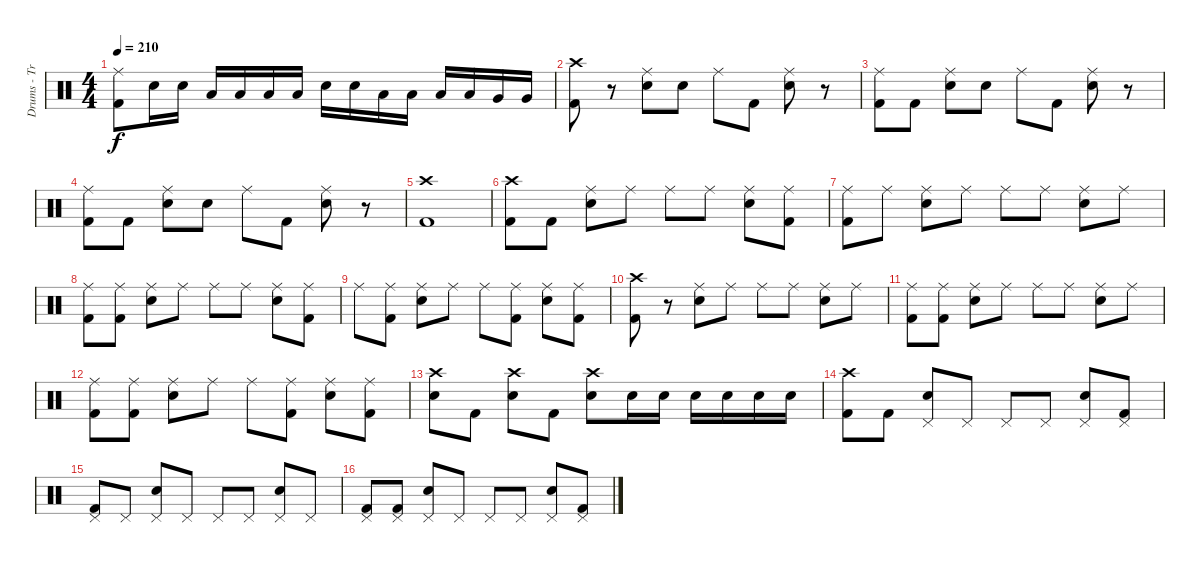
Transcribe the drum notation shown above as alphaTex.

\track ("Drums - Travis Barker" "Drums - Tr") {instrument percussion}
\staff {score}
\articulation defaults
\ts (4 4)
\tempo 210
\clef neutral
\ks c
("Ride (middle)" "Kick (hit) 2").8{dy f} "Electric Snare (hit)".16 "Electric Snare (hit)".16 "Low Tom (hit)".16 "Low Tom (hit)".16 "Low Tom (hit)".16 "Low Tom (hit)".16 "Electric Snare (hit)".16 "Electric Snare (hit)".16 "Low Tom (hit)".16 "Low Tom (hit)".16 "Low Tom (hit)".16 "Low Tom (hit)".16 "Very Low Tom (hit)".16 "Very Low Tom (hit)".16 |
("Crash high (hit)" "Kick (hit) 2").8 r.8 ("Ride (middle)" "Electric Snare (hit)").8 "Electric Snare (hit)".8 "Ride (middle)".8 "Kick (hit) 2".8 ("Ride (middle)" "Electric Snare (hit)").8 r.8 |
("Ride (middle)" "Kick (hit) 2").8 "Kick (hit) 2".8 ("Ride (middle)" "Electric Snare (hit)").8 "Electric Snare (hit)".8 "Ride (middle)".8 "Kick (hit) 2".8 ("Ride (middle)" "Electric Snare (hit)").8 r.8 |
("Ride (middle)" "Kick (hit) 2").8 "Kick (hit) 2".8 ("Ride (middle)" "Electric Snare (hit)").8 "Electric Snare (hit)".8 "Ride (middle)".8 "Kick (hit) 2".8 ("Ride (middle)" "Electric Snare (hit)").8 r.8 |
("Crash high (hit)" "Kick (hit) 2").1 |
("Crash high (hit)" "Kick (hit) 2").8 "Kick (hit) 2".8 ("Ride (middle)" "Electric Snare (hit)").8 "Ride (middle)".8 "Ride (middle)".8 "Ride (middle)".8 ("Ride (middle)" "Electric Snare (hit)").8 ("Ride (middle)" "Kick (hit) 2").8 |
("Ride (middle)" "Kick (hit) 2").8 "Ride (middle)".8 ("Ride (middle)" "Electric Snare (hit)").8 "Ride (middle)".8 "Ride (middle)".8 "Ride (middle)".8 ("Ride (middle)" "Electric Snare (hit)").8 "Ride (middle)".8 |
("Ride (middle)" "Kick (hit) 2").8 ("Ride (middle)" "Kick (hit) 2").8 ("Ride (middle)" "Electric Snare (hit)").8 "Ride (middle)".8 "Ride (middle)".8 "Ride (middle)".8 ("Ride (middle)" "Electric Snare (hit)").8 ("Ride (middle)" "Kick (hit) 2").8 |
"Ride (middle)".8 ("Ride (middle)" "Kick (hit) 2").8 ("Ride (middle)" "Electric Snare (hit)").8 "Ride (middle)".8 "Ride (middle)".8 ("Ride (middle)" "Kick (hit) 2").8 ("Ride (middle)" "Electric Snare (hit)").8 ("Ride (middle)" "Kick (hit) 2").8 |
("Crash high (hit)" "Kick (hit) 2").8 r.8 ("Ride (middle)" "Electric Snare (hit)").8 "Ride (middle)".8 "Ride (middle)".8 "Ride (middle)".8 ("Ride (middle)" "Electric Snare (hit)").8 "Ride (middle)".8 |
("Ride (middle)" "Kick (hit) 2").8 ("Ride (middle)" "Kick (hit) 2").8 ("Ride (middle)" "Electric Snare (hit)").8 "Ride (middle)".8 "Ride (middle)".8 "Ride (middle)".8 ("Ride (middle)" "Electric Snare (hit)").8 "Ride (middle)".8 |
("Ride (middle)" "Kick (hit) 2").8 ("Ride (middle)" "Kick (hit) 2").8 ("Ride (middle)" "Electric Snare (hit)").8 "Ride (middle)".8 "Ride (middle)".8 ("Ride (middle)" "Kick (hit) 2").8 ("Ride (middle)" "Electric Snare (hit)").8 ("Ride (middle)" "Kick (hit) 2").8 |
("Crash high (hit)" "Electric Snare (hit)").8 "Kick (hit) 2".8 ("Crash high (hit)" "Electric Snare (hit)").8 "Kick (hit) 2".8 ("Crash high (hit)" "Electric Snare (hit)").8 "Electric Snare (hit)".16 "Electric Snare (hit)".16 "Electric Snare (hit)".16 "Electric Snare (hit)".16 "Electric Snare (hit)".16 "Electric Snare (hit)".16 |
("Crash high (hit)" "Kick (hit) 2").8 "Kick (hit) 2".8 ("Pedal Hi-Hat (hit)" "Electric Snare (hit)").8 "Pedal Hi-Hat (hit)".8 "Pedal Hi-Hat (hit)".8 "Pedal Hi-Hat (hit)".8 ("Pedal Hi-Hat (hit)" "Electric Snare (hit)").8 ("Pedal Hi-Hat (hit)" "Kick (hit) 2").8 |
("Pedal Hi-Hat (hit)" "Kick (hit) 2").8 "Pedal Hi-Hat (hit)".8 ("Pedal Hi-Hat (hit)" "Electric Snare (hit)").8 "Pedal Hi-Hat (hit)".8 "Pedal Hi-Hat (hit)".8 "Pedal Hi-Hat (hit)".8 ("Pedal Hi-Hat (hit)" "Electric Snare (hit)").8 "Pedal Hi-Hat (hit)".8 |
("Pedal Hi-Hat (hit)" "Kick (hit) 2").8 ("Pedal Hi-Hat (hit)" "Kick (hit) 2").8 ("Pedal Hi-Hat (hit)" "Electric Snare (hit)").8 "Pedal Hi-Hat (hit)".8 "Pedal Hi-Hat (hit)".8 "Pedal Hi-Hat (hit)".8 ("Pedal Hi-Hat (hit)" "Electric Snare (hit)").8 ("Pedal Hi-Hat (hit)" "Kick (hit) 2").8
